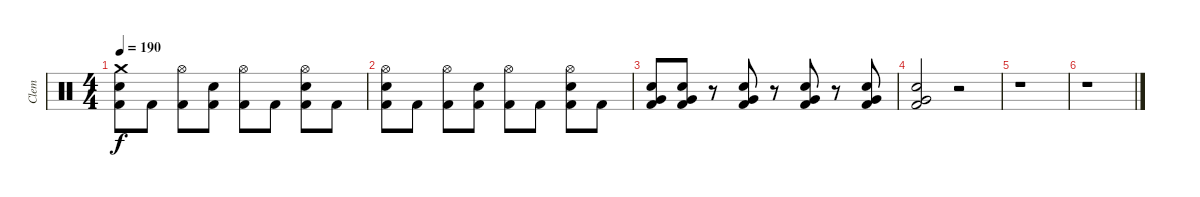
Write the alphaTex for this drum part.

\track ("Clem" "Clem") {instrument percussion}
\staff {score}
\articulation defaults
\ts (4 4)
\tempo 190
\clef neutral
\ks c
("Crash medium (hit)" "Electric Snare (hit)" "Kick (hit) 2").8{dy f} "Kick (hit) 2".8 ("Hi-Hat (open)" "Kick (hit) 2").8 ("Electric Snare (hit)" "Kick (hit) 2").8 ("Hi-Hat (open)" "Kick (hit) 2").8 "Kick (hit) 2".8 ("Hi-Hat (open)" "Electric Snare (hit)" "Kick (hit) 2").8 "Kick (hit) 2".8 |
("Hi-Hat (open)" "Electric Snare (hit)" "Kick (hit) 2").8 "Kick (hit) 2".8 ("Hi-Hat (open)" "Kick (hit) 2").8 ("Electric Snare (hit)" "Kick (hit) 2").8 ("Hi-Hat (open)" "Kick (hit) 2").8 "Kick (hit) 2".8 ("Hi-Hat (open)" "Electric Snare (hit)" "Kick (hit) 2").8 "Kick (hit) 2".8 |
("Electric Snare (hit)" "Very Low Tom (hit)" "Kick (hit) 2").8 ("Electric Snare (hit)" "Very Low Tom (hit)" "Kick (hit) 2").8 r.8 ("Electric Snare (hit)" "Very Low Tom (hit)" "Kick (hit) 2").8 r.8 ("Electric Snare (hit)" "Very Low Tom (hit)" "Kick (hit) 2").8 r.8 ("Electric Snare (hit)" "Very Low Tom (hit)" "Kick (hit) 2").8 |
("Electric Snare (hit)" "Very Low Tom (hit)" "Kick (hit) 2").2 r.2 |
r.1 |
r.1
